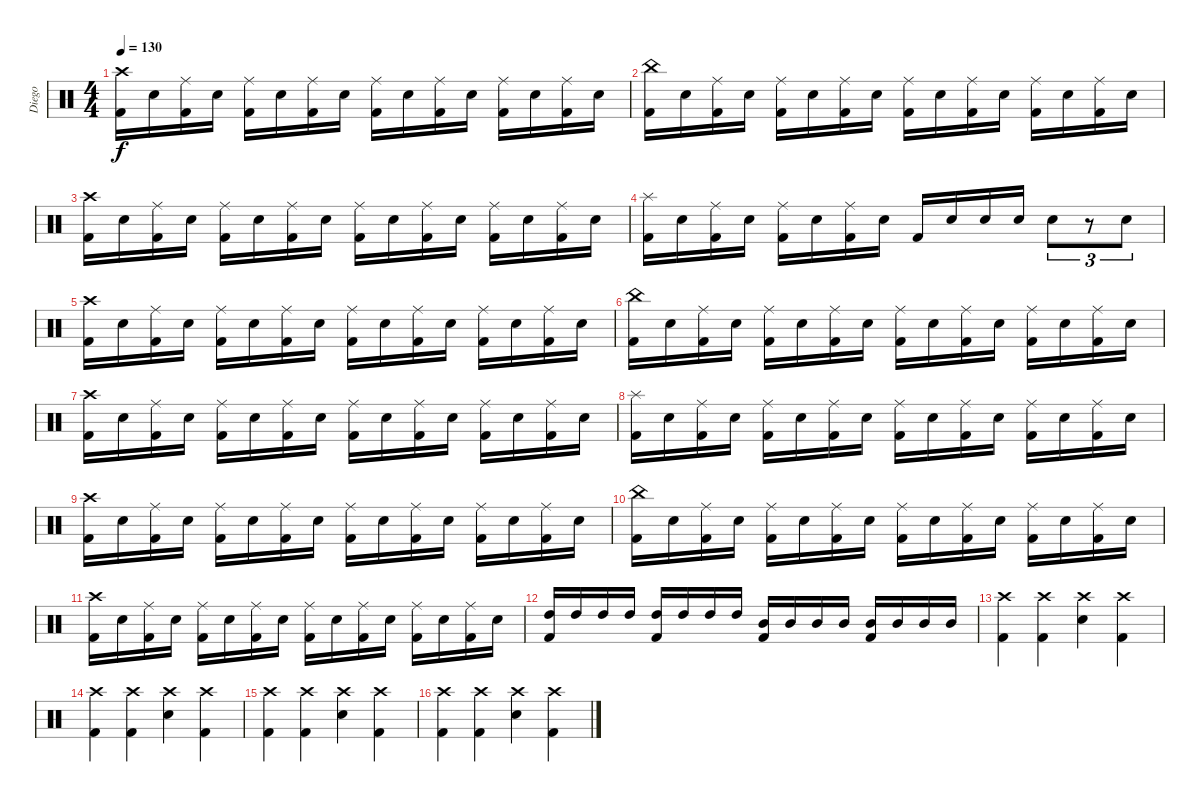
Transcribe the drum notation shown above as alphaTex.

\track ("Diego" "Diego") {instrument percussion}
\staff {score}
\articulation defaults
\ts (4 4)
\tempo 130
\clef neutral
\ks c
("Crash high (hit)" "Kick (hit) 2").16{dy f} "Electric Snare (hit)".16 ("Ride (middle)" "Kick (hit) 2").16 "Electric Snare (hit)".16 ("Ride (middle)" "Kick (hit) 2").16 "Electric Snare (hit)".16 ("Ride (middle)" "Kick (hit) 2").16 "Electric Snare (hit)".16 ("Ride (middle)" "Kick (hit) 2").16 "Electric Snare (hit)".16 ("Ride (middle)" "Kick (hit) 2").16 "Electric Snare (hit)".16 ("Ride (middle)" "Kick (hit) 2").16 "Electric Snare (hit)".16 ("Ride (middle)" "Kick (hit) 2").16 "Electric Snare (hit)".16 |
("China (hit)" "Kick (hit) 2").16 "Electric Snare (hit)".16 ("Ride (middle)" "Kick (hit) 2").16 "Electric Snare (hit)".16 ("Ride (middle)" "Kick (hit) 2").16 "Electric Snare (hit)".16 ("Ride (middle)" "Kick (hit) 2").16 "Electric Snare (hit)".16 ("Ride (middle)" "Kick (hit) 2").16 "Electric Snare (hit)".16 ("Ride (middle)" "Kick (hit) 2").16 "Electric Snare (hit)".16 ("Ride (middle)" "Kick (hit) 2").16 "Electric Snare (hit)".16 ("Ride (middle)" "Kick (hit) 2").16 "Electric Snare (hit)".16 |
("Crash high (hit)" "Kick (hit) 2").16 "Electric Snare (hit)".16 ("Ride (middle)" "Kick (hit) 2").16 "Electric Snare (hit)".16 ("Ride (middle)" "Kick (hit) 2").16 "Electric Snare (hit)".16 ("Ride (middle)" "Kick (hit) 2").16 "Electric Snare (hit)".16 ("Ride (middle)" "Kick (hit) 2").16 "Electric Snare (hit)".16 ("Ride (middle)" "Kick (hit) 2").16 "Electric Snare (hit)".16 ("Ride (middle)" "Kick (hit) 2").16 "Electric Snare (hit)".16 ("Ride (middle)" "Kick (hit) 2").16 "Electric Snare (hit)".16 |
("Splash (hit)" "Kick (hit) 2").16 "Electric Snare (hit)".16 ("Ride (middle)" "Kick (hit) 2").16 "Electric Snare (hit)".16 ("Ride (middle)" "Kick (hit) 2").16 "Electric Snare (hit)".16 ("Ride (middle)" "Kick (hit) 2").16 "Electric Snare (hit)".16 "Kick (hit) 2".16 "Electric Snare (hit)".16 "Electric Snare (hit)".16 "Electric Snare (hit)".16 "Electric Snare (hit)".8{tu (3 2)} r.8{tu (3 2)} "Electric Snare (hit)".8{tu (3 2)} |
("Crash high (hit)" "Kick (hit) 2").16 "Electric Snare (hit)".16 ("Ride (middle)" "Kick (hit) 2").16 "Electric Snare (hit)".16 ("Ride (middle)" "Kick (hit) 2").16 "Electric Snare (hit)".16 ("Ride (middle)" "Kick (hit) 2").16 "Electric Snare (hit)".16 ("Ride (middle)" "Kick (hit) 2").16 "Electric Snare (hit)".16 ("Ride (middle)" "Kick (hit) 2").16 "Electric Snare (hit)".16 ("Ride (middle)" "Kick (hit) 2").16 "Electric Snare (hit)".16 ("Ride (middle)" "Kick (hit) 2").16 "Electric Snare (hit)".16 |
("China (hit)" "Kick (hit) 2").16 "Electric Snare (hit)".16 ("Ride (middle)" "Kick (hit) 2").16 "Electric Snare (hit)".16 ("Ride (middle)" "Kick (hit) 2").16 "Electric Snare (hit)".16 ("Ride (middle)" "Kick (hit) 2").16 "Electric Snare (hit)".16 ("Ride (middle)" "Kick (hit) 2").16 "Electric Snare (hit)".16 ("Ride (middle)" "Kick (hit) 2").16 "Electric Snare (hit)".16 ("Ride (middle)" "Kick (hit) 2").16 "Electric Snare (hit)".16 ("Ride (middle)" "Kick (hit) 2").16 "Electric Snare (hit)".16 |
("Crash high (hit)" "Kick (hit) 2").16 "Electric Snare (hit)".16 ("Ride (middle)" "Kick (hit) 2").16 "Electric Snare (hit)".16 ("Ride (middle)" "Kick (hit) 2").16 "Electric Snare (hit)".16 ("Ride (middle)" "Kick (hit) 2").16 "Electric Snare (hit)".16 ("Ride (middle)" "Kick (hit) 2").16 "Electric Snare (hit)".16 ("Ride (middle)" "Kick (hit) 2").16 "Electric Snare (hit)".16 ("Ride (middle)" "Kick (hit) 2").16 "Electric Snare (hit)".16 ("Ride (middle)" "Kick (hit) 2").16 "Electric Snare (hit)".16 |
("Splash (hit)" "Kick (hit) 2").16 "Electric Snare (hit)".16 ("Ride (middle)" "Kick (hit) 2").16 "Electric Snare (hit)".16 ("Ride (middle)" "Kick (hit) 2").16 "Electric Snare (hit)".16 ("Ride (middle)" "Kick (hit) 2").16 "Electric Snare (hit)".16 ("Ride (middle)" "Kick (hit) 2").16 "Electric Snare (hit)".16 ("Ride (middle)" "Kick (hit) 2").16 "Electric Snare (hit)".16 ("Ride (middle)" "Kick (hit) 2").16 "Electric Snare (hit)".16 ("Ride (middle)" "Kick (hit) 2").16 "Electric Snare (hit)".16 |
("Crash high (hit)" "Kick (hit) 2").16 "Electric Snare (hit)".16 ("Ride (middle)" "Kick (hit) 2").16 "Electric Snare (hit)".16 ("Ride (middle)" "Kick (hit) 2").16 "Electric Snare (hit)".16 ("Ride (middle)" "Kick (hit) 2").16 "Electric Snare (hit)".16 ("Ride (middle)" "Kick (hit) 2").16 "Electric Snare (hit)".16 ("Ride (middle)" "Kick (hit) 2").16 "Electric Snare (hit)".16 ("Ride (middle)" "Kick (hit) 2").16 "Electric Snare (hit)".16 ("Ride (middle)" "Kick (hit) 2").16 "Electric Snare (hit)".16 |
("China (hit)" "Kick (hit) 2").16 "Electric Snare (hit)".16 ("Ride (middle)" "Kick (hit) 2").16 "Electric Snare (hit)".16 ("Ride (middle)" "Kick (hit) 2").16 "Electric Snare (hit)".16 ("Ride (middle)" "Kick (hit) 2").16 "Electric Snare (hit)".16 ("Ride (middle)" "Kick (hit) 2").16 "Electric Snare (hit)".16 ("Ride (middle)" "Kick (hit) 2").16 "Electric Snare (hit)".16 ("Ride (middle)" "Kick (hit) 2").16 "Electric Snare (hit)".16 ("Ride (middle)" "Kick (hit) 2").16 "Electric Snare (hit)".16 |
("Crash high (hit)" "Kick (hit) 2").16 "Electric Snare (hit)".16 ("Ride (middle)" "Kick (hit) 2").16 "Electric Snare (hit)".16 ("Ride (middle)" "Kick (hit) 2").16 "Electric Snare (hit)".16 ("Ride (middle)" "Kick (hit) 2").16 "Electric Snare (hit)".16 ("Ride (middle)" "Kick (hit) 2").16 "Electric Snare (hit)".16 ("Ride (middle)" "Kick (hit) 2").16 "Electric Snare (hit)".16 ("Ride (middle)" "Kick (hit) 2").16 "Electric Snare (hit)".16 ("Ride (middle)" "Kick (hit) 2").16 "Electric Snare (hit)".16 |
("High Tom (hit)" "Kick (hit) 2").16 "High Tom (hit)".16 "High Tom (hit)".16 "High Tom (hit)".16 ("High Tom (hit)" "Kick (hit) 2").16 "High Tom (hit)".16 "High Tom (hit)".16 "High Tom (hit)".16 ("Mid Tom (hit)" "Kick (hit) 2").16 "Mid Tom (hit)".16 "Mid Tom (hit)".16 "Mid Tom (hit)".16 ("Mid Tom (hit)" "Kick (hit) 2").16 "Mid Tom (hit)".16 "Mid Tom (hit)".16 "Mid Tom (hit)".16 |
("Crash high (hit)" "Kick (hit) 2").4 ("Crash high (hit)" "Kick (hit) 2").4 ("Crash high (hit)" "Electric Snare (hit)").4 ("Crash high (hit)" "Kick (hit) 2").4 |
("Crash high (hit)" "Kick (hit) 2").4 ("Crash high (hit)" "Kick (hit) 2").4 ("Crash high (hit)" "Electric Snare (hit)").4 ("Crash high (hit)" "Kick (hit) 2").4 |
("Crash high (hit)" "Kick (hit) 2").4 ("Crash high (hit)" "Kick (hit) 2").4 ("Crash high (hit)" "Electric Snare (hit)").4 ("Crash high (hit)" "Kick (hit) 2").4 |
("Crash high (hit)" "Kick (hit) 2").4 ("Crash high (hit)" "Kick (hit) 2").4 ("Crash high (hit)" "Electric Snare (hit)").4 ("Crash high (hit)" "Kick (hit) 2").4
